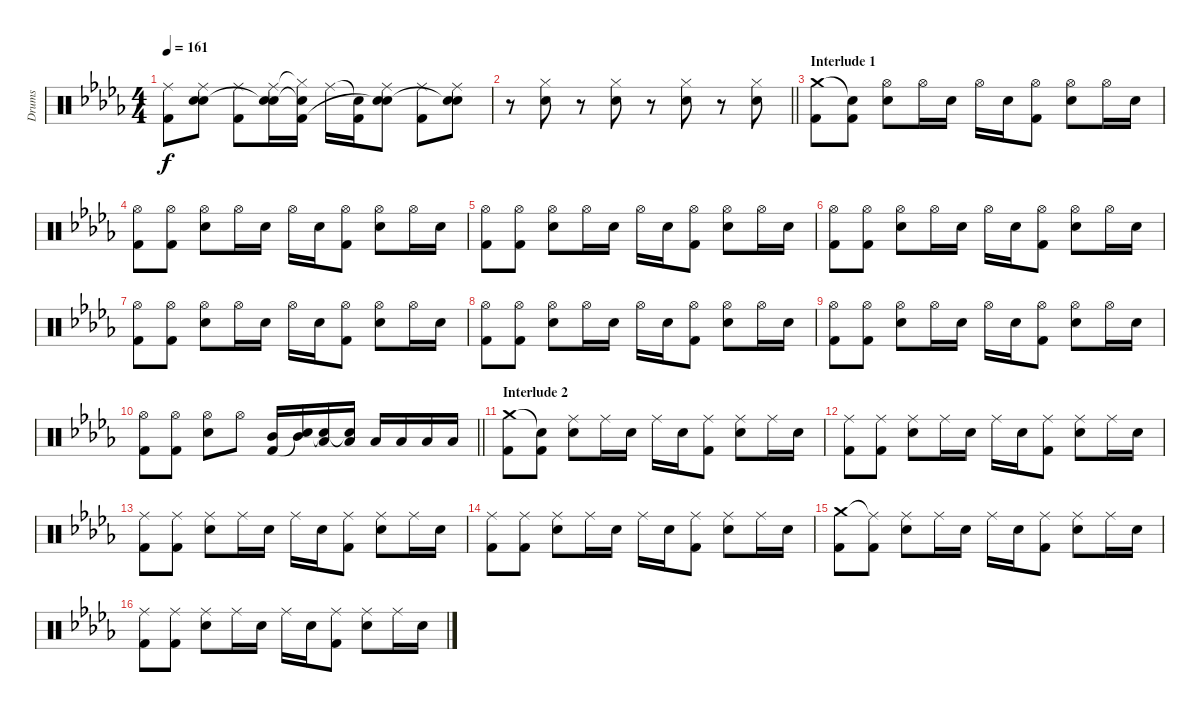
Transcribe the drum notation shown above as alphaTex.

\track ("Drums" "Drums") {instrument percussion}
\staff {score}
\articulation defaults
\ts (4 4)
\tempo 161
\clef neutral
\ks bbminor
("Ride (middle)" "Kick (hit) 2").8{dy f} ("Ride (middle)" "Electric Snare (hit)" "Snare (hit)"{t}).8 ("Ride (middle)" "Kick (hit) 2").8 ("Ride (middle)" "Electric Snare (hit)" "Snare (hit)"{t}).16 ("Hi-Hat (closed)"{t} "Snare (hit)"{t} "Kick (hit) 2").16 "Ride (middle)".16 ("Snare (hit)"{t} "Kick (hit) 2").16 ("Ride (middle)" "Electric Snare (hit)" "Snare (hit)"{t}).8 ("Ride (middle)" "Kick (hit) 2").8 ("Ride (middle)" "Electric Snare (hit)" "Snare (hit)"{t}).8 |
\barLineRight lightlight
r.8 ("Hi-Hat (closed)" "Electric Snare (hit)").8 r.8 ("Hi-Hat (closed)" "Electric Snare (hit)").8 r.8 ("Hi-Hat (closed)" "Electric Snare (hit)").8 r.8 ("Hi-Hat (closed)" "Electric Snare (hit)").8 |
\section ("" "Interlude 1")
("Crash medium (hit)" "Kick (hit) 2").8 ("Snare (hit)"{t} "Kick (hit) 2").8 ("Hi-Hat (open)" "Electric Snare (hit)").8 "Hi-Hat (open)".16 "Electric Snare (hit)".16 "Hi-Hat (open)".16 "Electric Snare (hit)".16 ("Hi-Hat (open)" "Kick (hit) 2").8 ("Hi-Hat (open)" "Electric Snare (hit)").8 "Hi-Hat (open)".16 "Electric Snare (hit)".16 |
("Hi-Hat (open)" "Kick (hit) 2").8 ("Hi-Hat (open)" "Kick (hit) 2").8 ("Hi-Hat (open)" "Electric Snare (hit)").8 "Hi-Hat (open)".16 "Electric Snare (hit)".16 "Hi-Hat (open)".16 "Electric Snare (hit)".16 ("Hi-Hat (open)" "Kick (hit) 2").8 ("Hi-Hat (open)" "Electric Snare (hit)").8 "Hi-Hat (open)".16 "Electric Snare (hit)".16 |
("Hi-Hat (open)" "Kick (hit) 2").8 ("Hi-Hat (open)" "Kick (hit) 2").8 ("Hi-Hat (open)" "Electric Snare (hit)").8 "Hi-Hat (open)".16 "Electric Snare (hit)".16 "Hi-Hat (open)".16 "Electric Snare (hit)".16 ("Hi-Hat (open)" "Kick (hit) 2").8 ("Hi-Hat (open)" "Electric Snare (hit)").8 "Hi-Hat (open)".16 "Electric Snare (hit)".16 |
("Hi-Hat (open)" "Kick (hit) 2").8 ("Hi-Hat (open)" "Kick (hit) 2").8 ("Hi-Hat (open)" "Electric Snare (hit)").8 "Hi-Hat (open)".16 "Electric Snare (hit)".16 "Hi-Hat (open)".16 "Electric Snare (hit)".16 ("Hi-Hat (open)" "Kick (hit) 2").8 ("Hi-Hat (open)" "Electric Snare (hit)").8 "Hi-Hat (open)".16 "Electric Snare (hit)".16 |
("Hi-Hat (open)" "Kick (hit) 2").8 ("Hi-Hat (open)" "Kick (hit) 2").8 ("Hi-Hat (open)" "Electric Snare (hit)").8 "Hi-Hat (open)".16 "Electric Snare (hit)".16 "Hi-Hat (open)".16 "Electric Snare (hit)".16 ("Hi-Hat (open)" "Kick (hit) 2").8 ("Hi-Hat (open)" "Electric Snare (hit)").8 "Hi-Hat (open)".16 "Electric Snare (hit)".16 |
("Hi-Hat (open)" "Kick (hit) 2").8 ("Hi-Hat (open)" "Kick (hit) 2").8 ("Hi-Hat (open)" "Electric Snare (hit)").8 "Hi-Hat (open)".16 "Electric Snare (hit)".16 "Hi-Hat (open)".16 "Electric Snare (hit)".16 ("Hi-Hat (open)" "Kick (hit) 2").8 ("Hi-Hat (open)" "Electric Snare (hit)").8 "Hi-Hat (open)".16 "Electric Snare (hit)".16 |
("Hi-Hat (open)" "Kick (hit) 2").8 ("Hi-Hat (open)" "Kick (hit) 2").8 ("Hi-Hat (open)" "Electric Snare (hit)").8 "Hi-Hat (open)".16 "Electric Snare (hit)".16 "Hi-Hat (open)".16 "Electric Snare (hit)".16 ("Hi-Hat (open)" "Kick (hit) 2").8 ("Hi-Hat (open)" "Electric Snare (hit)").8 "Hi-Hat (open)".16 "Electric Snare (hit)".16 |
\barLineRight lightlight
("Hi-Hat (open)" "Kick (hit) 2").8 ("Hi-Hat (open)" "Kick (hit) 2").8 ("Hi-Hat (open)" "Electric Snare (hit)").8 "Hi-Hat (open)".8 ("Mid Tom (hit)" "Kick (hit) 2").16 ("Mid Tom (hit)" "Snare (hit)"{t}).16 ("Low Tom (hit)" "Snare (hit)"{t}).16 ("Low Tom (hit)" "Snare (hit)"{t}).16 "Low Floor Tom (hit)".16 "Low Floor Tom (hit)".16 "Low Floor Tom (hit)".16 "Low Floor Tom (hit)".16 |
\section ("" "Interlude 2")
("Crash medium (hit)" "Kick (hit) 2").8 ("Snare (hit)"{t} "Kick (hit) 2").8 ("Ride (middle)" "Electric Snare (hit)").8 "Ride (middle)".16 "Electric Snare (hit)".16 "Ride (middle)".16 "Electric Snare (hit)".16 ("Ride (middle)" "Kick (hit) 2").8 ("Ride (middle)" "Electric Snare (hit)").8 "Ride (middle)".16 "Electric Snare (hit)".16 |
("Ride (middle)" "Kick (hit) 2").8 ("Ride (middle)" "Kick (hit) 2").8 ("Ride (middle)" "Electric Snare (hit)").8 "Ride (middle)".16 "Electric Snare (hit)".16 "Ride (middle)".16 "Electric Snare (hit)".16 ("Ride (middle)" "Kick (hit) 2").8 ("Ride (middle)" "Electric Snare (hit)").8 "Ride (middle)".16 "Electric Snare (hit)".16 |
("Ride (middle)" "Kick (hit) 2").8 ("Ride (middle)" "Kick (hit) 2").8 ("Ride (middle)" "Electric Snare (hit)").8 "Ride (middle)".16 "Electric Snare (hit)".16 "Ride (middle)".16 "Electric Snare (hit)".16 ("Ride (middle)" "Kick (hit) 2").8 ("Ride (middle)" "Electric Snare (hit)").8 "Ride (middle)".16 "Electric Snare (hit)".16 |
("Ride (middle)" "Kick (hit) 2").8 ("Ride (middle)" "Kick (hit) 2").8 ("Ride (middle)" "Electric Snare (hit)").8 "Ride (middle)".16 "Electric Snare (hit)".16 "Ride (middle)".16 "Electric Snare (hit)".16 ("Ride (middle)" "Kick (hit) 2").8 ("Ride (middle)" "Electric Snare (hit)").8 "Ride (middle)".16 "Electric Snare (hit)".16 |
("Crash medium (hit)" "Kick (hit) 2").8 ("Ride (middle)"{t} "Kick (hit) 2").8 ("Ride (middle)" "Electric Snare (hit)").8 "Ride (middle)".16 "Electric Snare (hit)".16 "Ride (middle)".16 "Electric Snare (hit)".16 ("Ride (middle)" "Kick (hit) 2").8 ("Ride (middle)" "Electric Snare (hit)").8 "Ride (middle)".16 "Electric Snare (hit)".16 |
("Ride (middle)" "Kick (hit) 2").8 ("Ride (middle)" "Kick (hit) 2").8 ("Ride (middle)" "Electric Snare (hit)").8 "Ride (middle)".16 "Electric Snare (hit)".16 "Ride (middle)".16 "Electric Snare (hit)".16 ("Ride (middle)" "Kick (hit) 2").8 ("Ride (middle)" "Electric Snare (hit)").8 "Ride (middle)".16 "Electric Snare (hit)".16
